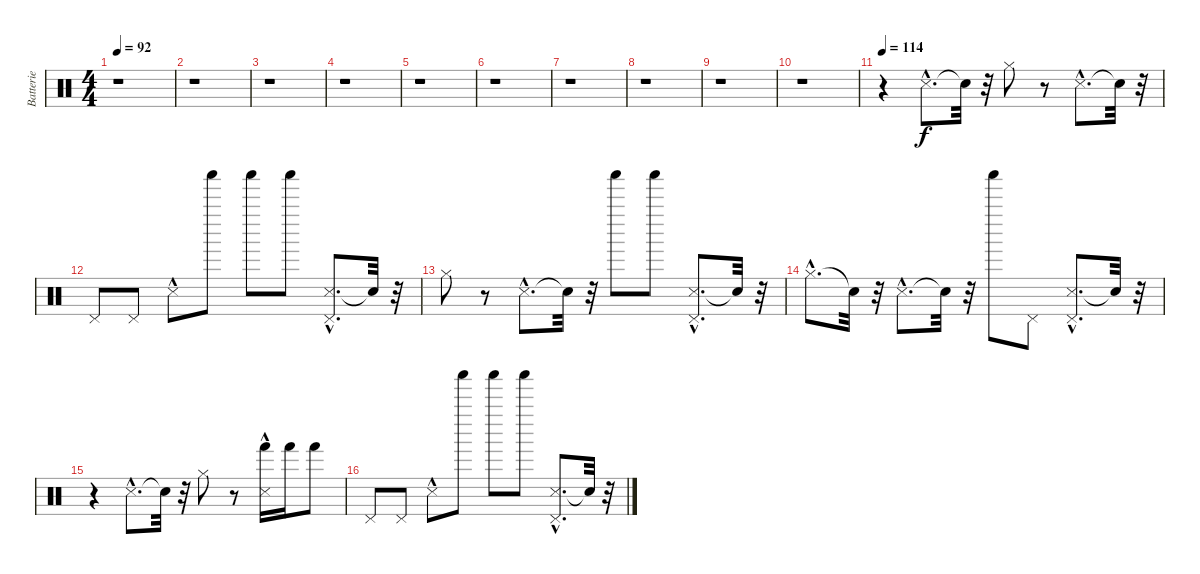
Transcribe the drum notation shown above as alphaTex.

\track ("Batterie" "Batterie") {instrument percussion}
\staff {score}
\articulation defaults
\ts (4 4)
\tempo 92
\clef neutral
\ks c
r.1{dy f} |
r.1 |
r.1 |
r.1 |
r.1 |
r.1 |
r.1 |
r.1 |
r.1 |
r.1 |
\tempo 114
r.4 "Snare (side stick) 3"{hac}.8{d} "Snare (hit)"{t}.32 r.32 "Hi-Hat (closed)".8 r.8 "Snare (side stick) 3"{hac}.8{d} "Snare (hit)"{t}.32 r.32 |
"Pedal Hi-Hat (hit)".8 "Pedal Hi-Hat (hit)".8 "Snare (side stick) 3"{hac}.8 "Shaker (hit)".8 "Shaker (hit)".8 "Shaker (hit)".8 ("Snare (side stick) 3"{hac} "Pedal Hi-Hat (hit)").8{d} "Snare (hit)"{t}.32 r.32 |
"Hi-Hat (closed)".8 r.8 "Snare (side stick) 3"{hac}.8{d} "Snare (hit)"{t}.32 r.32 "Shaker (hit)".8 "Shaker (hit)".8 ("Snare (side stick) 3"{hac} "Pedal Hi-Hat (hit)").8{d} "Snare (hit)"{t}.32 r.32 |
"Hi-Hat (closed)"{hac}.8{d} "Snare (hit)"{t}.32 r.32 "Snare (side stick) 3"{hac}.8{d} "Snare (hit)"{t}.32 r.32 "Shaker (hit)".8 "Pedal Hi-Hat (hit)".8 ("Snare (side stick) 3"{hac} "Pedal Hi-Hat (hit)").8{d} "Snare (hit)"{t}.32 r.32 |
r.4 "Snare (side stick) 3"{hac}.8{d} "Snare (hit)"{t}.32 r.32 "Hi-Hat (closed)".8 r.8 ("Snare (side stick) 3"{hac} "Hand (hit)").16 "Hand (hit)".16 "Hand (hit)".8 |
"Pedal Hi-Hat (hit)".8 "Pedal Hi-Hat (hit)".8 "Snare (side stick) 3"{hac}.8 "Shaker (hit)".8 "Shaker (hit)".8 "Shaker (hit)".8 ("Snare (side stick) 3"{hac} "Pedal Hi-Hat (hit)").8{d} "Snare (hit)"{t}.32 r.32
